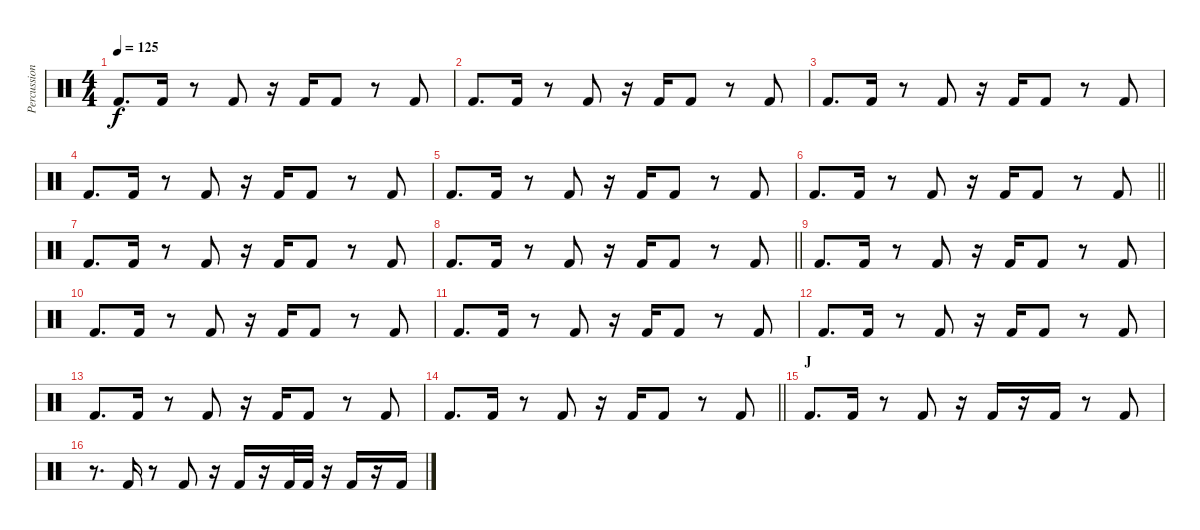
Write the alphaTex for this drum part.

\track ("Percussion (Bass Drum)" "Percussion") {instrument percussion}
\staff {score}
\articulation defaults
\ts (4 4)
\tempo 125
\clef neutral
\ks c "Kick (hit) 2".8{d dy f} "Kick (hit) 2".16
r.8 "Kick (hit) 2".8 r.16 "Kick (hit) 2".16 "Kick (hit) 2".8 r.8 "Kick (hit) 2".8 |
"Kick (hit) 2".8{d} "Kick (hit) 2".16 r.8 "Kick (hit) 2".8 r.16 "Kick (hit) 2".16 "Kick (hit) 2".8 r.8 "Kick (hit) 2".8 |
"Kick (hit) 2".8{d} "Kick (hit) 2".16 r.8 "Kick (hit) 2".8 r.16 "Kick (hit) 2".16 "Kick (hit) 2".8 r.8 "Kick (hit) 2".8 |
"Kick (hit) 2".8{d} "Kick (hit) 2".16 r.8 "Kick (hit) 2".8 r.16 "Kick (hit) 2".16 "Kick (hit) 2".8 r.8 "Kick (hit) 2".8 |
"Kick (hit) 2".8{d} "Kick (hit) 2".16 r.8 "Kick (hit) 2".8 r.16 "Kick (hit) 2".16 "Kick (hit) 2".8 r.8 "Kick (hit) 2".8 |
\barLineRight lightlight "Kick (hit) 2".8{d} "Kick (hit) 2".16
r.8 "Kick (hit) 2".8 r.16 "Kick (hit) 2".16 "Kick (hit) 2".8 r.8 "Kick (hit) 2".8 |
"Kick (hit) 2".8{d} "Kick (hit) 2".16 r.8 "Kick (hit) 2".8 r.16 "Kick (hit) 2".16 "Kick (hit) 2".8 r.8 "Kick (hit) 2".8 |
\barLineRight lightlight "Kick (hit) 2".8{d} "Kick (hit) 2".16
r.8 "Kick (hit) 2".8 r.16 "Kick (hit) 2".16 "Kick (hit) 2".8 r.8 "Kick (hit) 2".8 |
"Kick (hit) 2".8{d} "Kick (hit) 2".16 r.8 "Kick (hit) 2".8 r.16 "Kick (hit) 2".16 "Kick (hit) 2".8 r.8 "Kick (hit) 2".8 |
"Kick (hit) 2".8{d} "Kick (hit) 2".16 r.8 "Kick (hit) 2".8 r.16 "Kick (hit) 2".16 "Kick (hit) 2".8 r.8 "Kick (hit) 2".8 |
"Kick (hit) 2".8{d} "Kick (hit) 2".16 r.8 "Kick (hit) 2".8 r.16 "Kick (hit) 2".16 "Kick (hit) 2".8 r.8 "Kick (hit) 2".8 |
"Kick (hit) 2".8{d} "Kick (hit) 2".16 r.8 "Kick (hit) 2".8 r.16 "Kick (hit) 2".16 "Kick (hit) 2".8 r.8 "Kick (hit) 2".8 |
"Kick (hit) 2".8{d} "Kick (hit) 2".16 r.8 "Kick (hit) 2".8 r.16 "Kick (hit) 2".16 "Kick (hit) 2".8 r.8 "Kick (hit) 2".8 |
\barLineRight lightlight "Kick (hit) 2".8{d} "Kick (hit) 2".16
r.8 "Kick (hit) 2".8 r.16 "Kick (hit) 2".16 "Kick (hit) 2".8 r.8 "Kick (hit) 2".8 |
\section ("" "J")
"Kick (hit) 2".8{d} "Kick (hit) 2".16 r.8 "Kick (hit) 2".8 r.16 "Kick (hit) 2".16 r.16 "Kick (hit) 2".16 r.8 "Kick (hit) 2".8 |
r.8{d} "Kick (hit) 2".16 r.8 "Kick (hit) 2".8 r.16 "Kick (hit) 2".16 r.16 "Kick (hit) 2".32 "Kick (hit) 2".32 r.16 "Kick (hit) 2".16 r.16 "Kick (hit) 2".16
